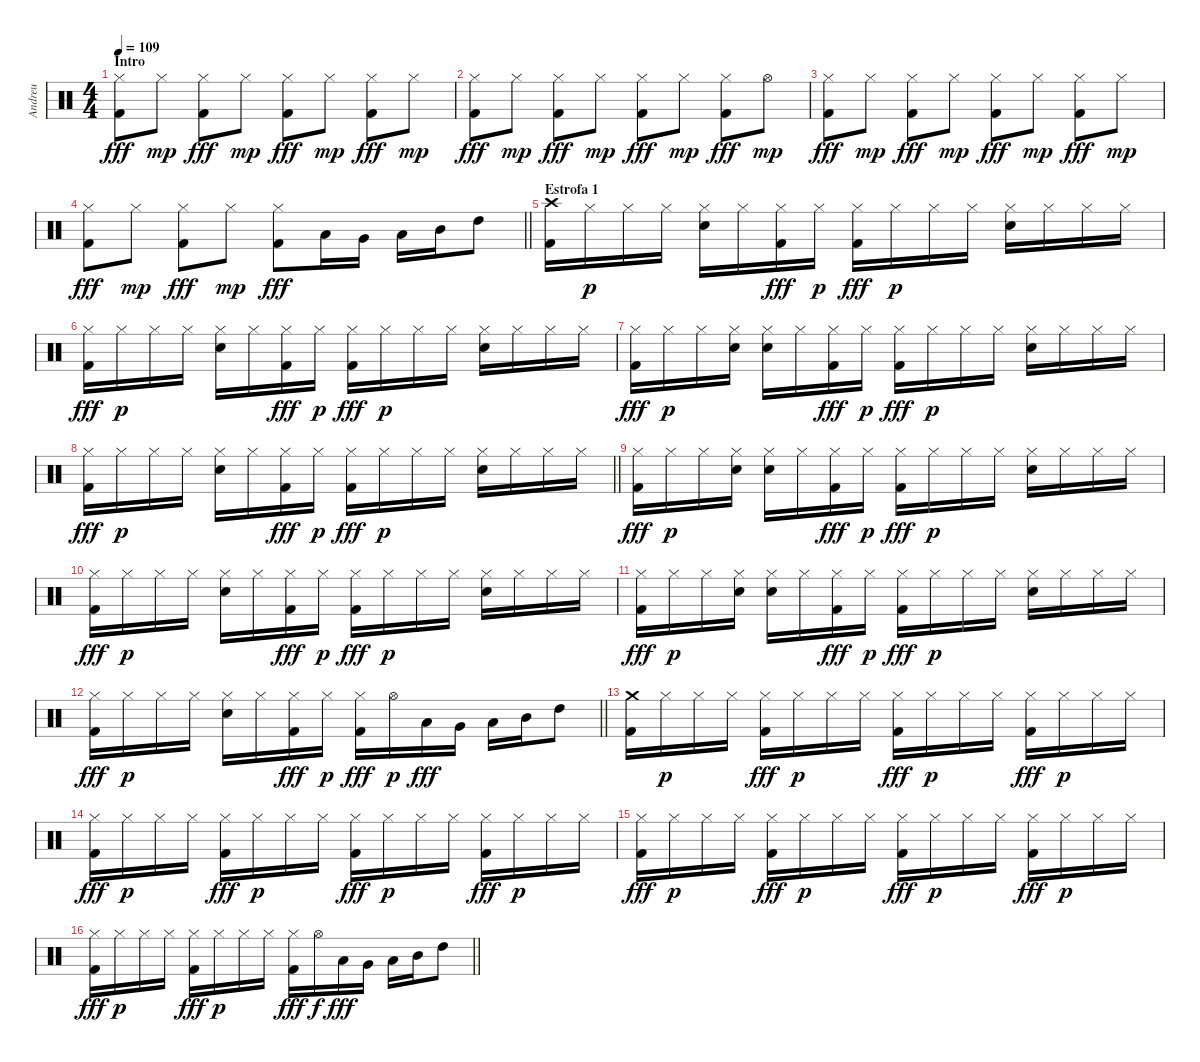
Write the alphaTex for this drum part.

\track ("Andreu" "Andreu") {instrument percussion}
\staff {score}
\articulation defaults
\ts (4 4)
\section ("" "Intro")
\tempo 109
\clef neutral
\ks c
("Hi-Hat (closed)" "Kick (hit) 2").8{dy fff} "Hi-Hat (closed)".8{dy mp} ("Hi-Hat (closed)" "Kick (hit) 2").8{dy fff} "Hi-Hat (closed)".8{dy mp} ("Hi-Hat (closed)" "Kick (hit) 2").8{dy fff} "Hi-Hat (closed)".8{dy mp} ("Hi-Hat (closed)" "Kick (hit) 2").8{dy fff} "Hi-Hat (closed)".8{dy mp} |
("Hi-Hat (closed)" "Kick (hit) 2").8{dy fff} "Hi-Hat (closed)".8{dy mp} ("Hi-Hat (closed)" "Kick (hit) 2").8{dy fff} "Hi-Hat (closed)".8{dy mp} ("Hi-Hat (closed)" "Kick (hit) 2").8{dy fff} "Hi-Hat (closed)".8{dy mp} ("Hi-Hat (closed)" "Kick (hit) 2").8{dy fff} "Hi-Hat (open)".8{dy mp} |
("Hi-Hat (closed)" "Kick (hit) 2").8{dy fff} "Hi-Hat (closed)".8{dy mp} ("Hi-Hat (closed)" "Kick (hit) 2").8{dy fff} "Hi-Hat (closed)".8{dy mp} ("Hi-Hat (closed)" "Kick (hit) 2").8{dy fff} "Hi-Hat (closed)".8{dy mp} ("Hi-Hat (closed)" "Kick (hit) 2").8{dy fff} "Hi-Hat (closed)".8{dy mp} |
\barLineRight lightlight
("Hi-Hat (closed)" "Kick (hit) 2").8{dy fff} "Hi-Hat (closed)".8{dy mp} ("Hi-Hat (closed)" "Kick (hit) 2").8{dy fff} "Hi-Hat (closed)".8{dy mp} ("Hi-Hat (closed)" "Kick (hit) 2").8{dy fff} "Low Floor Tom (hit)".16 "Very Low Tom (hit)".16 "Low Tom (hit)".16 "Mid Tom (hit)".16 "High Tom (hit)".8 |
\section ("" "Estrofa 1")
("Crash high (hit)" "Kick (hit) 2").16 "Hi-Hat (closed)".16{dy p} "Hi-Hat (closed)".16 "Hi-Hat (closed)".16 ("Hi-Hat (closed)" "Snare (hit) 2").16 "Hi-Hat (closed)".16 ("Hi-Hat (closed)" "Kick (hit) 2").16{dy fff} "Hi-Hat (closed)".16{dy p} ("Hi-Hat (closed)" "Kick (hit) 2").16{dy fff} "Hi-Hat (closed)".16{dy p} "Hi-Hat (closed)".16 "Hi-Hat (closed)".16 ("Hi-Hat (closed)" "Snare (hit) 2").16 "Hi-Hat (closed)".16 "Hi-Hat (closed)".16 "Hi-Hat (closed)".16 |
("Hi-Hat (closed)" "Kick (hit) 2").16{dy fff} "Hi-Hat (closed)".16{dy p} "Hi-Hat (closed)".16 "Hi-Hat (closed)".16 ("Hi-Hat (closed)" "Snare (hit) 2").16 "Hi-Hat (closed)".16 ("Hi-Hat (closed)" "Kick (hit) 2").16{dy fff} "Hi-Hat (closed)".16{dy p} ("Hi-Hat (closed)" "Kick (hit) 2").16{dy fff} "Hi-Hat (closed)".16{dy p} "Hi-Hat (closed)".16 "Hi-Hat (closed)".16 ("Hi-Hat (closed)" "Snare (hit) 2").16 "Hi-Hat (closed)".16 "Hi-Hat (closed)".16 "Hi-Hat (closed)".16 |
("Hi-Hat (closed)" "Kick (hit) 2").16{dy fff} "Hi-Hat (closed)".16{dy p} "Hi-Hat (closed)".16 ("Hi-Hat (closed)" "Snare (hit) 2").16 ("Hi-Hat (closed)" "Snare (hit) 2").16 "Hi-Hat (closed)".16 ("Hi-Hat (closed)" "Kick (hit) 2").16{dy fff} "Hi-Hat (closed)".16{dy p} ("Hi-Hat (closed)" "Kick (hit) 2").16{dy fff} "Hi-Hat (closed)".16{dy p} "Hi-Hat (closed)".16 "Hi-Hat (closed)".16 ("Hi-Hat (closed)" "Snare (hit) 2").16 "Hi-Hat (closed)".16 "Hi-Hat (closed)".16 "Hi-Hat (closed)".16 |
\barLineRight lightlight
("Hi-Hat (closed)" "Kick (hit) 2").16{dy fff} "Hi-Hat (closed)".16{dy p} "Hi-Hat (closed)".16 "Hi-Hat (closed)".16 ("Hi-Hat (closed)" "Snare (hit) 2").16 "Hi-Hat (closed)".16 ("Hi-Hat (closed)" "Kick (hit) 2").16{dy fff} "Hi-Hat (closed)".16{dy p} ("Hi-Hat (closed)" "Kick (hit) 2").16{dy fff} "Hi-Hat (closed)".16{dy p} "Hi-Hat (closed)".16 "Hi-Hat (closed)".16 ("Hi-Hat (closed)" "Snare (hit) 2").16 "Hi-Hat (closed)".16 "Hi-Hat (closed)".16 "Hi-Hat (closed)".16 |
("Hi-Hat (closed)" "Kick (hit) 2").16{dy fff} "Hi-Hat (closed)".16{dy p} "Hi-Hat (closed)".16 ("Hi-Hat (closed)" "Snare (hit) 2").16 ("Hi-Hat (closed)" "Snare (hit) 2").16 "Hi-Hat (closed)".16 ("Hi-Hat (closed)" "Kick (hit) 2").16{dy fff} "Hi-Hat (closed)".16{dy p} ("Hi-Hat (closed)" "Kick (hit) 2").16{dy fff} "Hi-Hat (closed)".16{dy p} "Hi-Hat (closed)".16 "Hi-Hat (closed)".16 ("Hi-Hat (closed)" "Snare (hit) 2").16 "Hi-Hat (closed)".16 "Hi-Hat (closed)".16 "Hi-Hat (closed)".16 |
("Hi-Hat (closed)" "Kick (hit) 2").16{dy fff} "Hi-Hat (closed)".16{dy p} "Hi-Hat (closed)".16 "Hi-Hat (closed)".16 ("Hi-Hat (closed)" "Snare (hit) 2").16 "Hi-Hat (closed)".16 ("Hi-Hat (closed)" "Kick (hit) 2").16{dy fff} "Hi-Hat (closed)".16{dy p} ("Hi-Hat (closed)" "Kick (hit) 2").16{dy fff} "Hi-Hat (closed)".16{dy p} "Hi-Hat (closed)".16 "Hi-Hat (closed)".16 ("Hi-Hat (closed)" "Snare (hit) 2").16 "Hi-Hat (closed)".16 "Hi-Hat (closed)".16 "Hi-Hat (closed)".16 |
("Hi-Hat (closed)" "Kick (hit) 2").16{dy fff} "Hi-Hat (closed)".16{dy p} "Hi-Hat (closed)".16 ("Hi-Hat (closed)" "Snare (hit) 2").16 ("Hi-Hat (closed)" "Snare (hit) 2").16 "Hi-Hat (closed)".16 ("Hi-Hat (closed)" "Kick (hit) 2").16{dy fff} "Hi-Hat (closed)".16{dy p} ("Hi-Hat (closed)" "Kick (hit) 2").16{dy fff} "Hi-Hat (closed)".16{dy p} "Hi-Hat (closed)".16 "Hi-Hat (closed)".16 ("Hi-Hat (closed)" "Snare (hit) 2").16 "Hi-Hat (closed)".16 "Hi-Hat (closed)".16 "Hi-Hat (closed)".16 |
\barLineRight lightlight
("Hi-Hat (closed)" "Kick (hit) 2").16{dy fff} "Hi-Hat (closed)".16{dy p} "Hi-Hat (closed)".16 "Hi-Hat (closed)".16 ("Hi-Hat (closed)" "Snare (hit) 2").16 "Hi-Hat (closed)".16 ("Hi-Hat (closed)" "Kick (hit) 2").16{dy fff} "Hi-Hat (closed)".16{dy p} ("Hi-Hat (closed)" "Kick (hit) 2").16{dy fff} "Hi-Hat (open)".16{dy p} "Low Floor Tom (hit)".16{dy fff} "Very Low Tom (hit)".16 "Low Tom (hit)".16 "Mid Tom (hit)".16 "High Tom (hit)".8 |
("Crash medium (hit)" "Kick (hit) 2").16 "Hi-Hat (closed)".16{dy p} "Hi-Hat (closed)".16 "Hi-Hat (closed)".16 ("Hi-Hat (closed)" "Kick (hit) 2").16{dy fff} "Hi-Hat (closed)".16{dy p} "Hi-Hat (closed)".16 "Hi-Hat (closed)".16 ("Hi-Hat (closed)" "Kick (hit) 2").16{dy fff} "Hi-Hat (closed)".16{dy p} "Hi-Hat (closed)".16 "Hi-Hat (closed)".16 ("Hi-Hat (closed)" "Kick (hit) 2").16{dy fff} "Hi-Hat (closed)".16{dy p} "Hi-Hat (closed)".16 "Hi-Hat (closed)".16 |
("Hi-Hat (closed)" "Kick (hit) 2").16{dy fff} "Hi-Hat (closed)".16{dy p} "Hi-Hat (closed)".16 "Hi-Hat (closed)".16 ("Hi-Hat (closed)" "Kick (hit) 2").16{dy fff} "Hi-Hat (closed)".16{dy p} "Hi-Hat (closed)".16 "Hi-Hat (closed)".16 ("Hi-Hat (closed)" "Kick (hit) 2").16{dy fff} "Hi-Hat (closed)".16{dy p} "Hi-Hat (closed)".16 "Hi-Hat (closed)".16 ("Hi-Hat (closed)" "Kick (hit) 2").16{dy fff} "Hi-Hat (closed)".16{dy p} "Hi-Hat (closed)".16 "Hi-Hat (closed)".16 |
("Hi-Hat (closed)" "Kick (hit) 2").16{dy fff} "Hi-Hat (closed)".16{dy p} "Hi-Hat (closed)".16 "Hi-Hat (closed)".16 ("Hi-Hat (closed)" "Kick (hit) 2").16{dy fff} "Hi-Hat (closed)".16{dy p} "Hi-Hat (closed)".16 "Hi-Hat (closed)".16 ("Hi-Hat (closed)" "Kick (hit) 2").16{dy fff} "Hi-Hat (closed)".16{dy p} "Hi-Hat (closed)".16 "Hi-Hat (closed)".16 ("Hi-Hat (closed)" "Kick (hit) 2").16{dy fff} "Hi-Hat (closed)".16{dy p} "Hi-Hat (closed)".16 "Hi-Hat (closed)".16 |
\barLineRight lightlight
("Hi-Hat (closed)" "Kick (hit) 2").16{dy fff} "Hi-Hat (closed)".16{dy p} "Hi-Hat (closed)".16 "Hi-Hat (closed)".16 ("Hi-Hat (closed)" "Kick (hit) 2").16{dy fff} "Hi-Hat (closed)".16{dy p} "Hi-Hat (closed)".16 "Hi-Hat (closed)".16 ("Hi-Hat (closed)" "Kick (hit) 2").16{dy fff} "Hi-Hat (open)".16{dy f} "Low Floor Tom (hit)".16{dy fff} "Very Low Tom (hit)".16 "Low Tom (hit)".16 "Mid Tom (hit)".16 "High Tom (hit)".8
